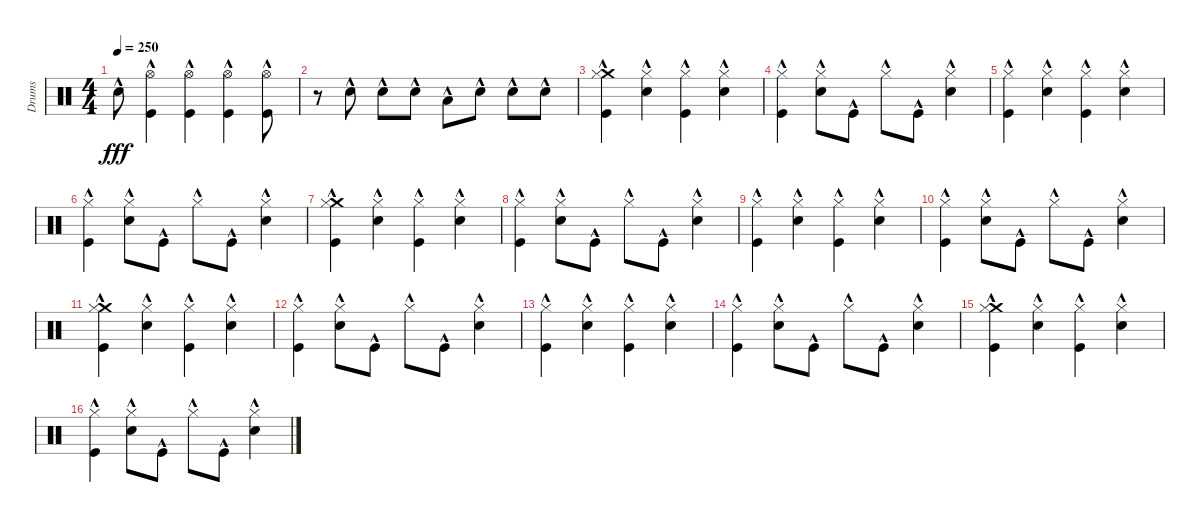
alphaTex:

\track ("Drums" "Drums") {instrument percussion}
\staff {score}
\articulation defaults
\ts (4 4)
\tempo 250
\clef neutral
\ks c "Snare (hit) 2"{hac}.8{dy fff}
("Hi-Hat (open)"{hac} "Kick (hit)"{hac}).4 ("Hi-Hat (open)"{hac} "Kick (hit)"{hac}).4 ("Hi-Hat (open)"{hac} "Kick (hit)"{hac}).4 ("Hi-Hat (open)"{hac} "Kick (hit)"{hac}).8 |
r.8 "Snare (hit) 2"{hac}.8 "Snare (hit) 2"{hac}.8 "Snare (hit) 2"{hac}.8 "Low Tom (hit)"{hac}.8 "Snare (hit) 2"{hac}.8 "Snare (hit) 2"{hac}.8 "Snare (hit) 2"{hac}.8 |
("Crash medium (hit)"{hac} "Hi-Hat (closed)"{hac} "Kick (hit)"{hac}).4 ("Hi-Hat (closed)"{hac} "Snare (hit) 2"{hac}).4 ("Hi-Hat (closed)"{hac} "Kick (hit)"{hac}).4 ("Hi-Hat (closed)"{hac} "Snare (hit) 2"{hac}).4 |
("Hi-Hat (closed)"{hac} "Kick (hit)"{hac}).4 ("Hi-Hat (closed)"{hac} "Snare (hit) 2"{hac}).8 "Kick (hit)"{hac}.8 "Hi-Hat (closed)"{hac}.8 "Kick (hit)"{hac}.8 ("Hi-Hat (closed)"{hac} "Snare (hit) 2"{hac}).4 |
("Hi-Hat (closed)"{hac} "Kick (hit)"{hac}).4 ("Hi-Hat (closed)"{hac} "Snare (hit) 2"{hac}).4 ("Hi-Hat (closed)"{hac} "Kick (hit)"{hac}).4 ("Hi-Hat (closed)"{hac} "Snare (hit) 2"{hac}).4 |
("Hi-Hat (closed)"{hac} "Kick (hit)"{hac}).4 ("Hi-Hat (closed)"{hac} "Snare (hit) 2"{hac}).8 "Kick (hit)"{hac}.8 "Hi-Hat (closed)"{hac}.8 "Kick (hit)"{hac}.8 ("Hi-Hat (closed)"{hac} "Snare (hit) 2"{hac}).4 |
("Crash medium (hit)"{hac} "Hi-Hat (closed)"{hac} "Kick (hit)"{hac}).4 ("Hi-Hat (closed)"{hac} "Snare (hit) 2"{hac}).4 ("Hi-Hat (closed)"{hac} "Kick (hit)"{hac}).4 ("Hi-Hat (closed)"{hac} "Snare (hit) 2"{hac}).4 |
("Hi-Hat (closed)"{hac} "Kick (hit)"{hac}).4 ("Hi-Hat (closed)"{hac} "Snare (hit) 2"{hac}).8 "Kick (hit)"{hac}.8 "Hi-Hat (closed)"{hac}.8 "Kick (hit)"{hac}.8 ("Hi-Hat (closed)"{hac} "Snare (hit) 2"{hac}).4 |
("Hi-Hat (closed)"{hac} "Kick (hit)"{hac}).4 ("Hi-Hat (closed)"{hac} "Snare (hit) 2"{hac}).4 ("Hi-Hat (closed)"{hac} "Kick (hit)"{hac}).4 ("Hi-Hat (closed)"{hac} "Snare (hit) 2"{hac}).4 |
("Hi-Hat (closed)"{hac} "Kick (hit)"{hac}).4 ("Hi-Hat (closed)"{hac} "Snare (hit) 2"{hac}).8 "Kick (hit)"{hac}.8 "Hi-Hat (closed)"{hac}.8 "Kick (hit)"{hac}.8 ("Hi-Hat (closed)"{hac} "Snare (hit) 2"{hac}).4 |
("Crash medium (hit)"{hac} "Hi-Hat (closed)"{hac} "Kick (hit)"{hac}).4 ("Hi-Hat (closed)"{hac} "Snare (hit) 2"{hac}).4 ("Hi-Hat (closed)"{hac} "Kick (hit)"{hac}).4 ("Hi-Hat (closed)"{hac} "Snare (hit) 2"{hac}).4 |
("Hi-Hat (closed)"{hac} "Kick (hit)"{hac}).4 ("Hi-Hat (closed)"{hac} "Snare (hit) 2"{hac}).8 "Kick (hit)"{hac}.8 "Hi-Hat (closed)"{hac}.8 "Kick (hit)"{hac}.8 ("Hi-Hat (closed)"{hac} "Snare (hit) 2"{hac}).4 |
("Hi-Hat (closed)"{hac} "Kick (hit)"{hac}).4 ("Hi-Hat (closed)"{hac} "Snare (hit) 2"{hac}).4 ("Hi-Hat (closed)"{hac} "Kick (hit)"{hac}).4 ("Hi-Hat (closed)"{hac} "Snare (hit) 2"{hac}).4 |
("Hi-Hat (closed)"{hac} "Kick (hit)"{hac}).4 ("Hi-Hat (closed)"{hac} "Snare (hit) 2"{hac}).8 "Kick (hit)"{hac}.8 "Hi-Hat (closed)"{hac}.8 "Kick (hit)"{hac}.8 ("Hi-Hat (closed)"{hac} "Snare (hit) 2"{hac}).4 |
("Crash medium (hit)"{hac} "Hi-Hat (closed)"{hac} "Kick (hit)"{hac}).4 ("Hi-Hat (closed)"{hac} "Snare (hit) 2"{hac}).4 ("Hi-Hat (closed)"{hac} "Kick (hit)"{hac}).4 ("Hi-Hat (closed)"{hac} "Snare (hit) 2"{hac}).4 |
("Hi-Hat (closed)"{hac} "Kick (hit)"{hac}).4 ("Hi-Hat (closed)"{hac} "Snare (hit) 2"{hac}).8 "Kick (hit)"{hac}.8 "Hi-Hat (closed)"{hac}.8 "Kick (hit)"{hac}.8 ("Hi-Hat (closed)"{hac} "Snare (hit) 2"{hac}).4
